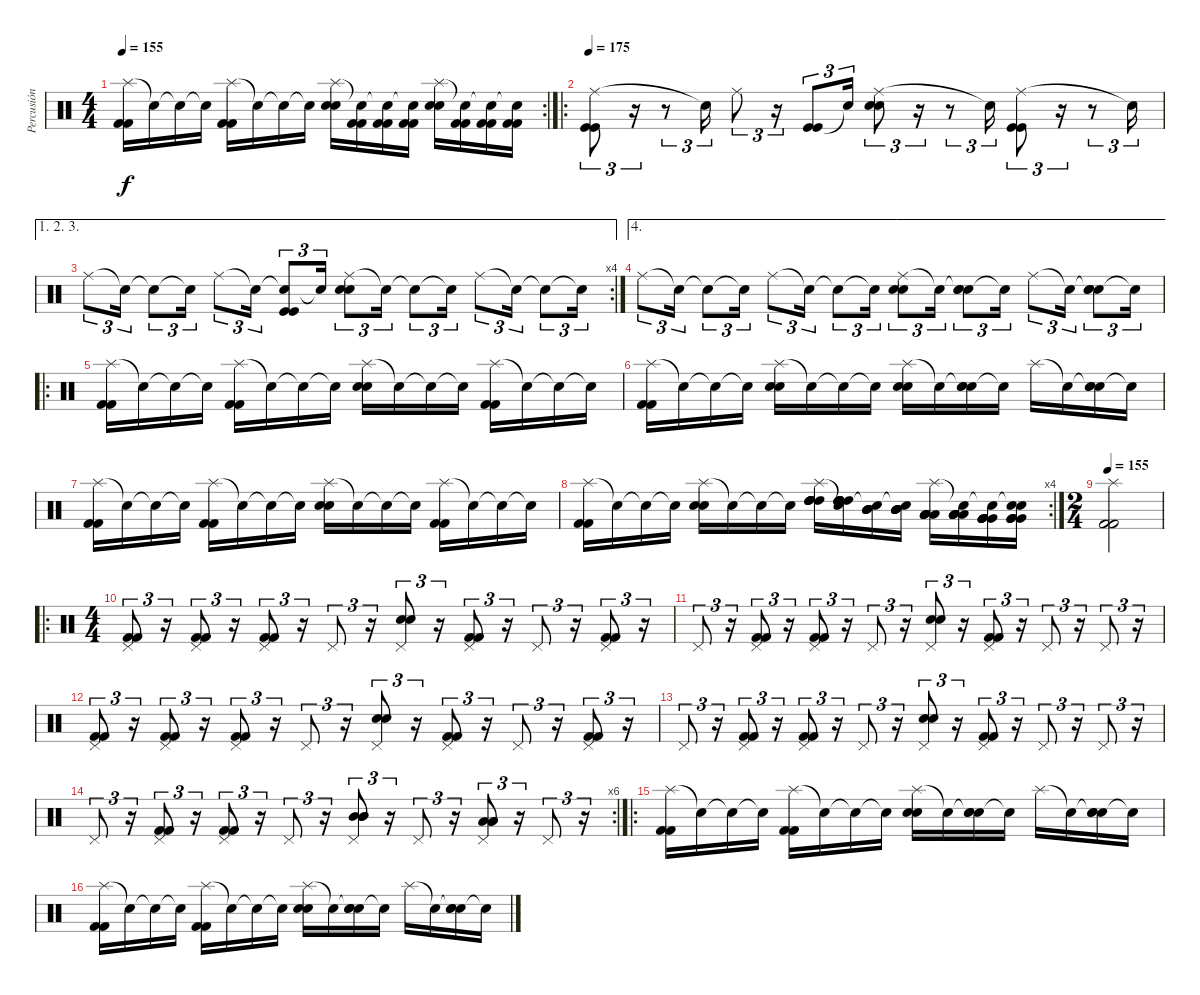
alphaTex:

\track ("Percusión" "Percusión") {instrument percussion}
\staff {score}
\articulation defaults
\rc 2
\ts (4 4)
\tempo 155
\clef neutral
\ks c
("Splash (hit)" "Kick (hit) 2" "Kick (hit) 2").16{dy f} "Snare (hit)"{t}.16 "Snare (hit)"{t}.16 "Snare (hit)"{t}.16 ("Splash (hit)" "Kick (hit) 2" "Kick (hit) 2").16 "Snare (hit)"{t}.16 "Snare (hit)"{t}.16 "Snare (hit)"{t}.16 ("Splash (hit)" "Electric Snare (hit)" "Electric Snare (hit)").16 ("Snare (hit)"{t} "Kick (hit) 2" "Kick (hit) 2").16 ("Snare (hit)"{t} "Kick (hit) 2" "Kick (hit) 2").16 ("Snare (hit)"{t} "Kick (hit) 2" "Kick (hit) 2").16 ("Splash (hit)" "Electric Snare (hit)" "Electric Snare (hit)").16 ("Snare (hit)"{t} "Kick (hit) 2" "Kick (hit) 2").16 ("Snare (hit)"{t} "Kick (hit) 2" "Kick (hit) 2").16 ("Snare (hit)"{t} "Kick (hit) 2" "Kick (hit) 2").16 |
\ro
\tempo 175
("Ride (middle)" "Kick (hit)" "Kick (hit)").8{tu (3 2)} r.16{tu (3 2)} r.8{tu (3 2)} "Snare (hit)"{t}.16{tu (3 2)} "Ride (middle)".8{tu (3 2)} r.16{tu (3 2)} ("Kick (hit)" "Kick (hit)").8{tu (3 2)} "Snare (hit)"{t}.16{tu (3 2)} ("Ride (middle)" "Snare (hit) 2" "Snare (hit) 2").8{tu (3 2)} r.16{tu (3 2)} r.8{tu (3 2)} "Snare (hit)"{t}.16{tu (3 2)} ("Ride (middle)" "Kick (hit)" "Kick (hit)").8{tu (3 2)} r.16{tu (3 2)} r.8{tu (3 2)} "Snare (hit)"{t}.16{tu (3 2)} |
\ae (1 2 3)
\rc 4 "Ride (middle)".8{tu (3 2)} "Snare (hit)"{t}.16{tu (3 2)} "Snare (hit)"{t}.8{tu (3 2)} "Snare (hit)"{t}.16{tu (3 2)} "Ride (middle)".8{tu (3 2)} "Snare (hit)"{t}.16{tu (3 2)}
("Snare (hit)"{t} "Kick (hit)" "Kick (hit)").8{tu (3 2)} "Snare (hit)"{t}.16{tu (3 2)} ("Ride (middle)" "Snare (hit) 2" "Snare (hit) 2").8{tu (3 2)} "Snare (hit)"{t}.16{tu (3 2)} "Snare (hit)"{t}.8{tu (3 2)} "Snare (hit)"{t}.16{tu (3 2)} "Ride (middle)".8{tu (3 2)} "Snare (hit)"{t}.16{tu (3 2)} "Snare (hit)"{t}.8{tu (3 2)} "Snare (hit)"{t}.16{tu (3 2)} |
\ae 4 "Ride (middle)".8{tu (3 2)} "Snare (hit)"{t}.16{tu (3 2)} "Snare (hit)"{t}.8{tu (3 2)} "Snare (hit)"{t}.16{tu (3 2)} "Ride (middle)".8{tu (3 2)} "Snare (hit)"{t}.16{tu (3 2)} "Snare (hit)"{t}.8{tu (3 2)} "Snare (hit)"{t}.16{tu (3 2)}
("Ride (middle)" "Electric Snare (hit)" "Electric Snare (hit)").8{tu (3 2)} "Snare (hit)"{t}.16{tu (3 2)} ("Snare (hit)"{t} "Electric Snare (hit)" "Electric Snare (hit)").8{tu (3 2)} "Snare (hit)"{t}.16{tu (3 2)} "Ride (middle)".8{tu (3 2)} "Snare (hit)"{t}.16{tu (3 2)} ("Snare (hit)"{t} "Electric Snare (hit)" "Electric Snare (hit)").8{tu (3 2)} "Snare (hit)"{t}.16{tu (3 2)} |
\ro
("Splash (hit)" "Kick (hit) 2" "Kick (hit) 2").16 "Snare (hit)"{t}.16 "Snare (hit)"{t}.16 "Snare (hit)"{t}.16 ("Splash (hit)" "Kick (hit) 2" "Kick (hit) 2").16 "Snare (hit)"{t}.16 "Snare (hit)"{t}.16 "Snare (hit)"{t}.16 ("Splash (hit)" "Electric Snare (hit)" "Electric Snare (hit)").16 "Snare (hit)"{t}.16 "Snare (hit)"{t}.16 "Snare (hit)"{t}.16 ("Splash (hit)" "Kick (hit) 2" "Kick (hit) 2").16 "Snare (hit)"{t}.16 "Snare (hit)"{t}.16 "Snare (hit)"{t}.16 |
("Splash (hit)" "Kick (hit) 2" "Kick (hit) 2").16 "Snare (hit)"{t}.16 "Snare (hit)"{t}.16 "Snare (hit)"{t}.16 ("Splash (hit)" "Electric Snare (hit)" "Electric Snare (hit)").16 "Snare (hit)"{t}.16 "Snare (hit)"{t}.16 "Snare (hit)"{t}.16 ("Splash (hit)" "Electric Snare (hit)" "Electric Snare (hit)").16 "Snare (hit)"{t}.16 ("Snare (hit)"{t} "Electric Snare (hit)" "Electric Snare (hit)").16 "Snare (hit)"{t}.16 "Splash (hit)".16 "Snare (hit)"{t}.16 ("Snare (hit)"{t} "Electric Snare (hit)" "Electric Snare (hit)").16 "Snare (hit)"{t}.16 |
("Splash (hit)" "Kick (hit) 2" "Kick (hit) 2").16 "Snare (hit)"{t}.16 "Snare (hit)"{t}.16 "Snare (hit)"{t}.16 ("Splash (hit)" "Kick (hit) 2" "Kick (hit) 2").16 "Snare (hit)"{t}.16 "Snare (hit)"{t}.16 "Snare (hit)"{t}.16 ("Splash (hit)" "Electric Snare (hit)" "Electric Snare (hit)").16 "Snare (hit)"{t}.16 "Snare (hit)"{t}.16 "Snare (hit)"{t}.16 ("Splash (hit)" "Kick (hit) 2" "Kick (hit) 2").16 "Snare (hit)"{t}.16 "Snare (hit)"{t}.16 "Snare (hit)"{t}.16 |
\rc 4
("Splash (hit)" "Kick (hit) 2" "Kick (hit) 2").16 "Snare (hit)"{t}.16 "Snare (hit)"{t}.16 "Snare (hit)"{t}.16 ("Splash (hit)" "Electric Snare (hit)" "Electric Snare (hit)").16 "Snare (hit)"{t}.16 "Snare (hit)"{t}.16 "Snare (hit)"{t}.16 ("Splash (hit)" "High Tom (hit)" "High Tom (hit)" "High Tom (hit)" "High Tom (hit)" "High Tom (hit)").16 ("Snare (hit)"{t} "High Tom (hit)" "High Tom (hit)" "High Tom (hit)" "High Tom (hit)" "High Tom (hit)").16 ("Snare (hit)"{t} "Mid Tom (hit)" "Mid Tom (hit)" "Mid Tom (hit)" "Mid Tom (hit)" "Mid Tom (hit)").16 ("Snare (hit)"{t} "Mid Tom (hit)" "Mid Tom (hit)" "Mid Tom (hit)" "Mid Tom (hit)" "Mid Tom (hit)").16 ("Splash (hit)" "Low Tom (hit)" "Low Tom (hit)" "Low Tom (hit)" "Low Tom (hit)" "Low Tom (hit)").16 ("Snare (hit)"{t} "Low Tom (hit)" "Low Tom (hit)" "Low Tom (hit)" "Low Tom (hit)" "Low Tom (hit)").16 ("Snare (hit)"{t} "Very Low Tom (hit)" "Very Low Tom (hit)" "Very Low Tom (hit)" "Very Low Tom (hit)" "Very Low Tom (hit)").16 ("Snare (hit)"{t} "Very Low Tom (hit)" "Very Low Tom (hit)" "Very Low Tom (hit)" "Very Low Tom (hit)" "Metronome (bell)").16 |
\ts (2 4)
\tempo 155
("Splash (hit)" "Kick (hit) 2" "Kick (hit) 2").2 |
\ro
\ts (4 4)
("Pedal Hi-Hat (hit)" "Kick (hit) 2" "Kick (hit) 2").8{tu (3 2)} r.16{tu (3 2)} ("Pedal Hi-Hat (hit)" "Kick (hit) 2" "Kick (hit) 2").8{tu (3 2)} r.16{tu (3 2)} ("Pedal Hi-Hat (hit)" "Kick (hit) 2" "Kick (hit) 2").8{tu (3 2)} r.16{tu (3 2)} "Pedal Hi-Hat (hit)".8{tu (3 2)} r.16{tu (3 2)} ("Pedal Hi-Hat (hit)" "Electric Snare (hit)" "Electric Snare (hit)").8{tu (3 2)} r.16{tu (3 2)} ("Pedal Hi-Hat (hit)" "Kick (hit) 2" "Kick (hit) 2").8{tu (3 2)} r.16{tu (3 2)} "Pedal Hi-Hat (hit)".8{tu (3 2)} r.16{tu (3 2)} ("Pedal Hi-Hat (hit)" "Kick (hit) 2" "Kick (hit) 2").8{tu (3 2)} r.16{tu (3 2)} |
"Pedal Hi-Hat (hit)".8{tu (3 2)} r.16{tu (3 2)} ("Pedal Hi-Hat (hit)" "Kick (hit) 2" "Kick (hit) 2").8{tu (3 2)} r.16{tu (3 2)} ("Pedal Hi-Hat (hit)" "Kick (hit) 2" "Kick (hit) 2").8{tu (3 2)} r.16{tu (3 2)} "Pedal Hi-Hat (hit)".8{tu (3 2)} r.16{tu (3 2)} ("Pedal Hi-Hat (hit)" "Electric Snare (hit)" "Electric Snare (hit)").8{tu (3 2)} r.16{tu (3 2)} ("Pedal Hi-Hat (hit)" "Kick (hit) 2" "Kick (hit) 2").8{tu (3 2)} r.16{tu (3 2)} "Pedal Hi-Hat (hit)".8{tu (3 2)} r.16{tu (3 2)} "Pedal Hi-Hat (hit)".8{tu (3 2)} r.16{tu (3 2)} |
("Pedal Hi-Hat (hit)" "Kick (hit) 2" "Kick (hit) 2").8{tu (3 2)} r.16{tu (3 2)} ("Pedal Hi-Hat (hit)" "Kick (hit) 2" "Kick (hit) 2").8{tu (3 2)} r.16{tu (3 2)} ("Pedal Hi-Hat (hit)" "Kick (hit) 2" "Kick (hit) 2").8{tu (3 2)} r.16{tu (3 2)} "Pedal Hi-Hat (hit)".8{tu (3 2)} r.16{tu (3 2)} ("Pedal Hi-Hat (hit)" "Electric Snare (hit)" "Electric Snare (hit)").8{tu (3 2)} r.16{tu (3 2)} ("Pedal Hi-Hat (hit)" "Kick (hit) 2" "Kick (hit) 2").8{tu (3 2)} r.16{tu (3 2)} "Pedal Hi-Hat (hit)".8{tu (3 2)} r.16{tu (3 2)} ("Pedal Hi-Hat (hit)" "Kick (hit) 2" "Kick (hit) 2").8{tu (3 2)} r.16{tu (3 2)} |
"Pedal Hi-Hat (hit)".8{tu (3 2)} r.16{tu (3 2)} ("Pedal Hi-Hat (hit)" "Kick (hit) 2" "Kick (hit) 2").8{tu (3 2)} r.16{tu (3 2)} ("Pedal Hi-Hat (hit)" "Kick (hit) 2" "Kick (hit) 2").8{tu (3 2)} r.16{tu (3 2)} "Pedal Hi-Hat (hit)".8{tu (3 2)} r.16{tu (3 2)} ("Pedal Hi-Hat (hit)" "Electric Snare (hit)" "Electric Snare (hit)").8{tu (3 2)} r.16{tu (3 2)} ("Pedal Hi-Hat (hit)" "Kick (hit) 2" "Kick (hit) 2").8{tu (3 2)} r.16{tu (3 2)} "Pedal Hi-Hat (hit)".8{tu (3 2)} r.16{tu (3 2)} "Pedal Hi-Hat (hit)".8{tu (3 2)} r.16{tu (3 2)} |
\rc 6 "Pedal Hi-Hat (hit)".8{tu (3 2)}
r.16{tu (3 2)} ("Pedal Hi-Hat (hit)" "Kick (hit) 2" "Kick (hit) 2").8{tu (3 2)} r.16{tu (3 2)} ("Pedal Hi-Hat (hit)" "Kick (hit) 2" "Kick (hit) 2").8{tu (3 2)} r.16{tu (3 2)} "Pedal Hi-Hat (hit)".8{tu (3 2)} r.16{tu (3 2)} ("Pedal Hi-Hat (hit)" "Mid Tom (hit)" "Mid Tom (hit)" "Mid Tom (hit)").8{tu (3 2)} r.16{tu (3 2)} "Pedal Hi-Hat (hit)".8{tu (3 2)} r.16{tu (3 2)} ("Pedal Hi-Hat (hit)" "Low Tom (hit)" "Low Tom (hit)" "Low Tom (hit)").8{tu (3 2)} r.16{tu (3 2)} "Pedal Hi-Hat (hit)".8{tu (3 2)} r.16{tu (3 2)} |
\ro
("Splash (hit)" "Kick (hit) 2" "Kick (hit) 2").16 "Snare (hit)"{t}.16 "Snare (hit)"{t}.16 "Snare (hit)"{t}.16 ("Splash (hit)" "Kick (hit) 2" "Kick (hit) 2").16 "Snare (hit)"{t}.16 "Snare (hit)"{t}.16 "Snare (hit)"{t}.16 ("Splash (hit)" "Electric Snare (hit)" "Electric Snare (hit)").16 "Snare (hit)"{t}.16 ("Snare (hit)"{t} "Electric Snare (hit)" "Electric Snare (hit)").16 "Snare (hit)"{t}.16 "Splash (hit)".16 "Snare (hit)"{t}.16 ("Snare (hit)"{t} "Electric Snare (hit)" "Electric Snare (hit)").16 "Snare (hit)"{t}.16 |
("Splash (hit)" "Kick (hit) 2" "Kick (hit) 2").16 "Snare (hit)"{t}.16 "Snare (hit)"{t}.16 "Snare (hit)"{t}.16 ("Splash (hit)" "Kick (hit) 2" "Kick (hit) 2").16 "Snare (hit)"{t}.16 "Snare (hit)"{t}.16 "Snare (hit)"{t}.16 ("Splash (hit)" "Electric Snare (hit)" "Electric Snare (hit)").16 "Snare (hit)"{t}.16 ("Snare (hit)"{t} "Electric Snare (hit)" "Electric Snare (hit)").16 "Snare (hit)"{t}.16 "Splash (hit)".16 "Snare (hit)"{t}.16 ("Snare (hit)"{t} "Electric Snare (hit)" "Electric Snare (hit)").16 "Snare (hit)"{t}.16
